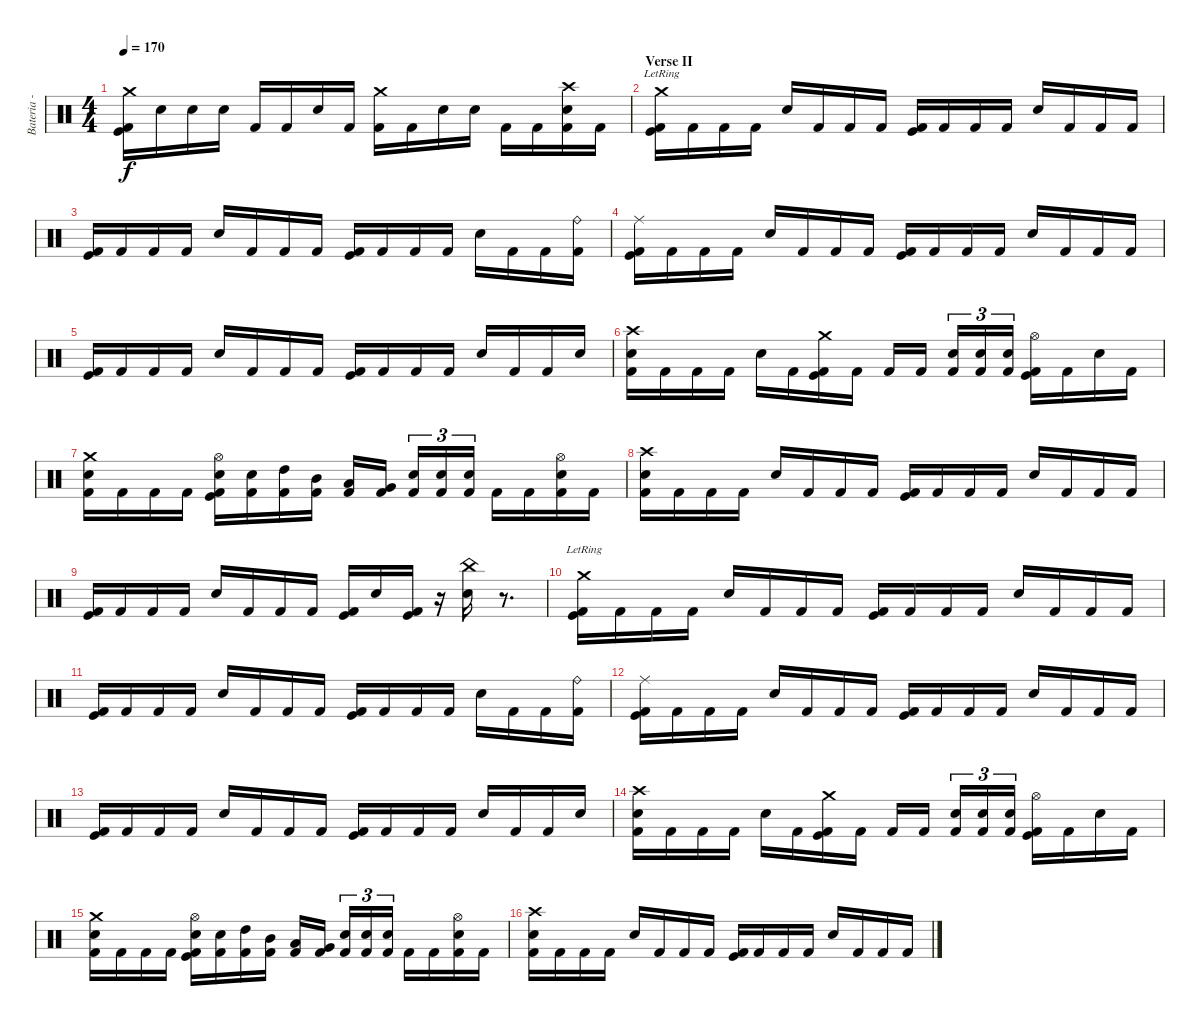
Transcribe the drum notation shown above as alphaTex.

\track ("Bateria - Drums" "Bateria - ") {instrument percussion}
\staff {score}
\articulation defaults
\ts (4 4)
\tempo 170
\clef neutral
\ks c
("Crash medium (hit)" "Kick (hit)" "Kick (hit) 2").16{dy f} "Snare (hit) 2".16 "Snare (hit) 2".16 "Snare (hit) 2".16 "Kick (hit) 2".16 "Kick (hit) 2".16 "Electric Snare (hit)".16 "Kick (hit) 2".16 ("Crash medium (hit)" "Kick (hit) 2").16 "Kick (hit) 2".16 "Electric Snare (hit)".16 "Electric Snare (hit)".16 "Kick (hit) 2".16 "Kick (hit) 2".16 ("Crash high (hit)" "Snare (hit) 2" "Kick (hit) 2").16 "Kick (hit) 2".16 |
\section ("" "Verse II")
("Crash medium (hit)"{lr} "Kick (hit)" "Kick (hit) 2").16 "Kick (hit) 2".16 "Kick (hit) 2".16 "Kick (hit) 2".16 "Snare (hit) 2".16 "Kick (hit) 2".16 "Kick (hit) 2".16 "Kick (hit) 2".16 ("Kick (hit)" "Kick (hit) 2").16 "Kick (hit) 2".16 "Kick (hit) 2".16 "Kick (hit) 2".16 "Snare (hit) 2".16 "Kick (hit) 2".16 "Kick (hit) 2".16 "Kick (hit) 2".16 |
("Kick (hit)" "Kick (hit) 2").16 "Kick (hit) 2".16 "Kick (hit) 2".16 "Kick (hit) 2".16 "Snare (hit) 2".16 "Kick (hit) 2".16 "Kick (hit) 2".16 "Kick (hit) 2".16 ("Kick (hit)" "Kick (hit) 2").16 "Kick (hit) 2".16 "Kick (hit) 2".16 "Kick (hit) 2".16 "Snare (hit) 2".16 "Kick (hit) 2".16 "Kick (hit) 2".16 ("Ride (bell)" "Kick (hit) 2").16 |
("Ride (middle)" "Kick (hit)" "Kick (hit) 2").16 "Kick (hit) 2".16 "Kick (hit) 2".16 "Kick (hit) 2".16 "Snare (hit) 2".16 "Kick (hit) 2".16 "Kick (hit) 2".16 "Kick (hit) 2".16 ("Kick (hit)" "Kick (hit) 2").16 "Kick (hit) 2".16 "Kick (hit) 2".16 "Kick (hit) 2".16 "Snare (hit) 2".16 "Kick (hit) 2".16 "Kick (hit) 2".16 "Kick (hit) 2".16 |
("Kick (hit)" "Kick (hit) 2").16 "Kick (hit) 2".16 "Kick (hit) 2".16 "Kick (hit) 2".16 "Snare (hit) 2".16 "Kick (hit) 2".16 "Kick (hit) 2".16 "Kick (hit) 2".16 ("Kick (hit)" "Kick (hit) 2").16 "Kick (hit) 2".16 "Kick (hit) 2".16 "Kick (hit) 2".16 "Snare (hit) 2".16 "Kick (hit) 2".16 "Kick (hit) 2".16 "Snare (hit) 2".16 |
("Crash high (hit)" "Snare (hit) 2" "Kick (hit) 2").16 "Kick (hit) 2".16 "Kick (hit) 2".16 "Kick (hit) 2".16 "Snare (hit) 2".16 "Kick (hit) 2".16 ("Crash medium (hit)" "Kick (hit)" "Kick (hit) 2").16 "Kick (hit) 2".16 "Kick (hit) 2".16 "Kick (hit) 2".16 ("Snare (hit) 2" "Kick (hit) 2").16{tu (3 2)} ("Snare (hit) 2" "Kick (hit) 2").16{tu (3 2)} ("Snare (hit) 2" "Kick (hit) 2").16{tu (3 2)} ("Hi-Hat (open)" "Kick (hit)" "Kick (hit) 2").16 "Kick (hit) 2".16 "Snare (hit) 2".16 "Kick (hit) 2".16 |
("Crash medium (hit)" "Snare (hit) 2" "Kick (hit) 2").16 "Kick (hit) 2".16 "Kick (hit) 2".16 "Kick (hit) 2".16 ("Hi-Hat (open)" "Snare (hit) 2" "Kick (hit)" "Kick (hit) 2").16 ("Snare (hit) 2" "Kick (hit) 2").16 ("High Tom (hit)" "Kick (hit) 2").16 ("Mid Tom (hit)" "Kick (hit) 2").16 ("Low Tom (hit)" "Kick (hit) 2").16 ("Very Low Tom (hit)" "Kick (hit) 2").16 ("Electric Snare (hit)" "Kick (hit) 2").16{tu (3 2)} ("Electric Snare (hit)" "Kick (hit) 2").16{tu (3 2)} ("Electric Snare (hit)" "Kick (hit) 2").16{tu (3 2)} "Kick (hit) 2".16 "Kick (hit) 2".16 ("Hi-Hat (open)" "Snare (hit) 2" "Kick (hit) 2").16 "Kick (hit) 2".16 |
("Crash high (hit)" "Snare (hit) 2" "Kick (hit) 2").16 "Kick (hit) 2".16 "Kick (hit) 2".16 "Kick (hit) 2".16 "Snare (hit) 2".16 "Kick (hit) 2".16 "Kick (hit) 2".16 "Kick (hit) 2".16 ("Kick (hit)" "Kick (hit) 2").16 "Kick (hit) 2".16 "Kick (hit) 2".16 "Kick (hit) 2".16 "Snare (hit) 2".16 "Kick (hit) 2".16 "Kick (hit) 2".16 "Kick (hit) 2".16 |
("Kick (hit)" "Kick (hit) 2").16 "Kick (hit) 2".16 "Kick (hit) 2".16 "Kick (hit) 2".16 "Snare (hit) 2".16 "Kick (hit) 2".16 "Kick (hit) 2".16 "Kick (hit) 2".16 ("Kick (hit)" "Kick (hit) 2").16 "Snare (hit) 2".16 ("Kick (hit)" "Kick (hit) 2").16 r.16 ("China (hit)" "Snare (hit) 2").16 r.8{d} |
("Crash medium (hit)"{lr} "Kick (hit)" "Kick (hit) 2").16 "Kick (hit) 2".16 "Kick (hit) 2".16 "Kick (hit) 2".16 "Snare (hit) 2".16 "Kick (hit) 2".16 "Kick (hit) 2".16 "Kick (hit) 2".16 ("Kick (hit)" "Kick (hit) 2").16 "Kick (hit) 2".16 "Kick (hit) 2".16 "Kick (hit) 2".16 "Snare (hit) 2".16 "Kick (hit) 2".16 "Kick (hit) 2".16 "Kick (hit) 2".16 |
("Kick (hit)" "Kick (hit) 2").16 "Kick (hit) 2".16 "Kick (hit) 2".16 "Kick (hit) 2".16 "Snare (hit) 2".16 "Kick (hit) 2".16 "Kick (hit) 2".16 "Kick (hit) 2".16 ("Kick (hit)" "Kick (hit) 2").16 "Kick (hit) 2".16 "Kick (hit) 2".16 "Kick (hit) 2".16 "Snare (hit) 2".16 "Kick (hit) 2".16 "Kick (hit) 2".16 ("Ride (bell)" "Kick (hit) 2").16 |
("Ride (middle)" "Kick (hit)" "Kick (hit) 2").16 "Kick (hit) 2".16 "Kick (hit) 2".16 "Kick (hit) 2".16 "Snare (hit) 2".16 "Kick (hit) 2".16 "Kick (hit) 2".16 "Kick (hit) 2".16 ("Kick (hit)" "Kick (hit) 2").16 "Kick (hit) 2".16 "Kick (hit) 2".16 "Kick (hit) 2".16 "Snare (hit) 2".16 "Kick (hit) 2".16 "Kick (hit) 2".16 "Kick (hit) 2".16 |
("Kick (hit)" "Kick (hit) 2").16 "Kick (hit) 2".16 "Kick (hit) 2".16 "Kick (hit) 2".16 "Snare (hit) 2".16 "Kick (hit) 2".16 "Kick (hit) 2".16 "Kick (hit) 2".16 ("Kick (hit)" "Kick (hit) 2").16 "Kick (hit) 2".16 "Kick (hit) 2".16 "Kick (hit) 2".16 "Snare (hit) 2".16 "Kick (hit) 2".16 "Kick (hit) 2".16 "Snare (hit) 2".16 |
("Crash high (hit)" "Snare (hit) 2" "Kick (hit) 2").16 "Kick (hit) 2".16 "Kick (hit) 2".16 "Kick (hit) 2".16 "Snare (hit) 2".16 "Kick (hit) 2".16 ("Crash medium (hit)" "Kick (hit)" "Kick (hit) 2").16 "Kick (hit) 2".16 "Kick (hit) 2".16 "Kick (hit) 2".16 ("Snare (hit) 2" "Kick (hit) 2").16{tu (3 2)} ("Snare (hit) 2" "Kick (hit) 2").16{tu (3 2)} ("Snare (hit) 2" "Kick (hit) 2").16{tu (3 2)} ("Hi-Hat (open)" "Kick (hit)" "Kick (hit) 2").16 "Kick (hit) 2".16 "Snare (hit) 2".16 "Kick (hit) 2".16 |
("Crash medium (hit)" "Snare (hit) 2" "Kick (hit) 2").16 "Kick (hit) 2".16 "Kick (hit) 2".16 "Kick (hit) 2".16 ("Hi-Hat (open)" "Snare (hit) 2" "Kick (hit)" "Kick (hit) 2").16 ("Snare (hit) 2" "Kick (hit) 2").16 ("High Tom (hit)" "Kick (hit) 2").16 ("Mid Tom (hit)" "Kick (hit) 2").16 ("Low Tom (hit)" "Kick (hit) 2").16 ("Very Low Tom (hit)" "Kick (hit) 2").16 ("Electric Snare (hit)" "Kick (hit) 2").16{tu (3 2)} ("Electric Snare (hit)" "Kick (hit) 2").16{tu (3 2)} ("Electric Snare (hit)" "Kick (hit) 2").16{tu (3 2)} "Kick (hit) 2".16 "Kick (hit) 2".16 ("Hi-Hat (open)" "Snare (hit) 2" "Kick (hit) 2").16 "Kick (hit) 2".16 |
("Crash high (hit)" "Snare (hit) 2" "Kick (hit) 2").16 "Kick (hit) 2".16 "Kick (hit) 2".16 "Kick (hit) 2".16 "Snare (hit) 2".16 "Kick (hit) 2".16 "Kick (hit) 2".16 "Kick (hit) 2".16 ("Kick (hit)" "Kick (hit) 2").16 "Kick (hit) 2".16 "Kick (hit) 2".16 "Kick (hit) 2".16 "Snare (hit) 2".16 "Kick (hit) 2".16 "Kick (hit) 2".16 "Kick (hit) 2".16
